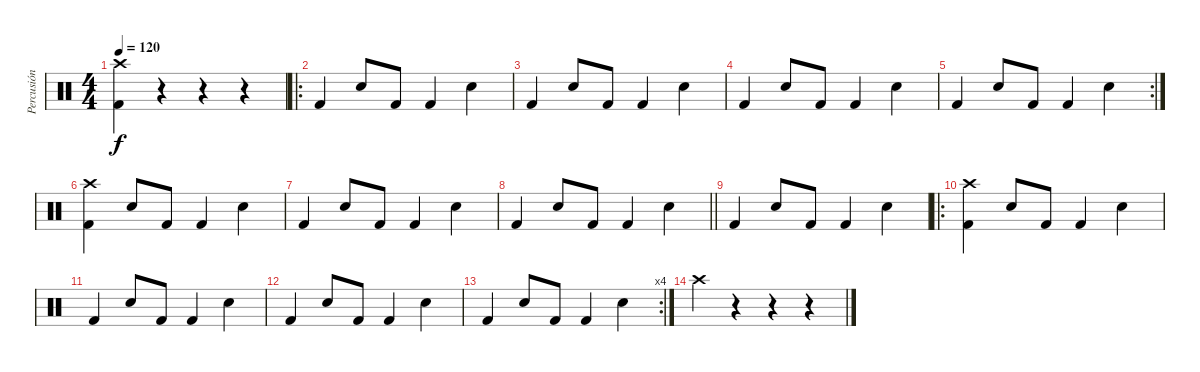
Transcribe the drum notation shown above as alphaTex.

\track ("Percusión" "Percusión") {instrument percussion}
\staff {score}
\articulation defaults
\ts (4 4)
\tempo 120
\clef neutral
\ks c
("Crash high (hit)" "Kick (hit) 2").4{dy f} r.4 r.4 r.4 |
\ro "Kick (hit) 2".4 "Snare (hit) 2".8 "Kick (hit) 2".8 "Kick (hit) 2".4 "Snare (hit) 2".4
|
"Kick (hit) 2".4 "Snare (hit) 2".8 "Kick (hit) 2".8 "Kick (hit) 2".4 "Snare (hit) 2".4 |
"Kick (hit) 2".4 "Snare (hit) 2".8 "Kick (hit) 2".8 "Kick (hit) 2".4 "Snare (hit) 2".4 |
\rc 2 "Kick (hit) 2".4 "Snare (hit) 2".8 "Kick (hit) 2".8 "Kick (hit) 2".4 "Snare (hit) 2".4
|
("Crash high (hit)" "Kick (hit) 2").4 "Snare (hit) 2".8 "Kick (hit) 2".8 "Kick (hit) 2".4 "Snare (hit) 2".4 |
"Kick (hit) 2".4 "Snare (hit) 2".8 "Kick (hit) 2".8 "Kick (hit) 2".4 "Snare (hit) 2".4 |
\barLineRight lightlight "Kick (hit) 2".4 "Snare (hit) 2".8 "Kick (hit) 2".8 "Kick (hit) 2".4 "Snare (hit) 2".4
|
"Kick (hit) 2".4 "Snare (hit) 2".8 "Kick (hit) 2".8 "Kick (hit) 2".4 "Snare (hit) 2".4 |
\ro
("Crash high (hit)" "Kick (hit) 2").4 "Snare (hit) 2".8 "Kick (hit) 2".8 "Kick (hit) 2".4 "Snare (hit) 2".4 |
"Kick (hit) 2".4 "Snare (hit) 2".8 "Kick (hit) 2".8 "Kick (hit) 2".4 "Snare (hit) 2".4 |
"Kick (hit) 2".4 "Snare (hit) 2".8 "Kick (hit) 2".8 "Kick (hit) 2".4 "Snare (hit) 2".4 |
\rc 4 "Kick (hit) 2".4 "Snare (hit) 2".8 "Kick (hit) 2".8 "Kick (hit) 2".4 "Snare (hit) 2".4
|
"Crash high (hit)".4 r.4 r.4 r.4
